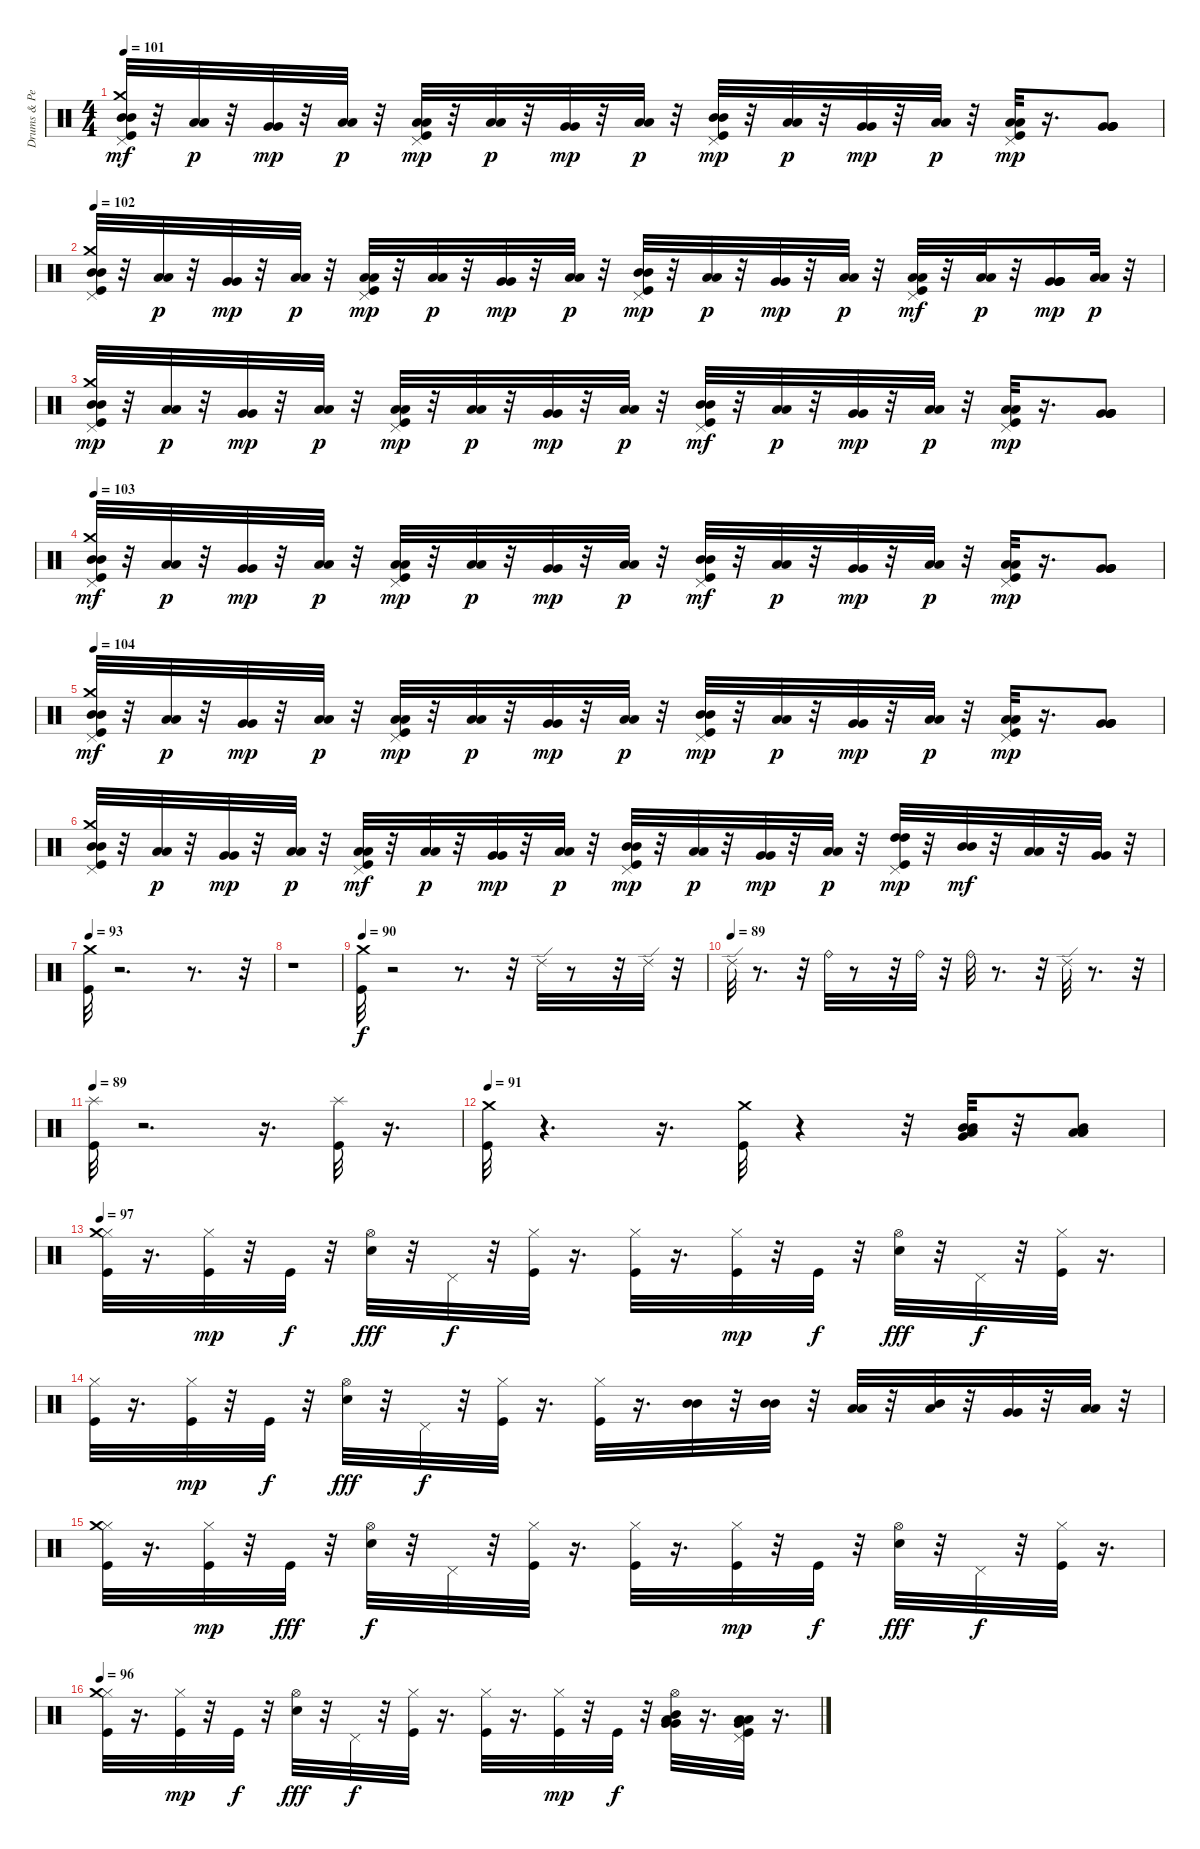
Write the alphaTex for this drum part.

\track ("Drums & Percussion" "Drums & Pe") {instrument percussion}
\staff {score}
\articulation defaults
\ts (4 4)
\tempo 101
\clef neutral
\ks c
("Mid Tom (hit)" "Crash medium (hit)" "Mid Tom (hit)" "Pedal Hi-Hat (hit)" "Kick (hit)").32{dy mf} r.32 ("Low Floor Tom (hit)" "Low Floor Tom (hit)").32{dy p} r.32 ("Very Low Tom (hit)" "Very Low Tom (hit)").32{dy mp} r.32 ("Low Floor Tom (hit)" "Low Floor Tom (hit)").32{dy p} r.32 ("Low Tom (hit)" "Pedal Hi-Hat (hit)" "Kick (hit)" "Low Tom (hit)").32{dy mp} r.32 ("Low Floor Tom (hit)" "Low Floor Tom (hit)").32{dy p} r.32 ("Very Low Tom (hit)" "Very Low Tom (hit)").32{dy mp} r.32 ("Low Floor Tom (hit)" "Low Floor Tom (hit)").32{dy p} r.32 ("Mid Tom (hit)" "Mid Tom (hit)" "Kick (hit)" "Pedal Hi-Hat (hit)").32{dy mp} r.32 ("Low Floor Tom (hit)" "Low Floor Tom (hit)").32{dy p} r.32 ("Very Low Tom (hit)" "Very Low Tom (hit)").32{dy mp} r.32 ("Low Floor Tom (hit)" "Low Floor Tom (hit)").32{dy p} r.32 ("Low Tom (hit)" "Low Tom (hit)" "Kick (hit)" "Pedal Hi-Hat (hit)").32{dy mp} r.16{d} ("Very Low Tom (hit)" "Very Low Tom (hit)" "Very Low Tom (hit)" "Very Low Tom (hit)").8 |
\tempo 102
("Mid Tom (hit)" "Crash medium (hit)" "Mid Tom (hit)" "Kick (hit)" "Pedal Hi-Hat (hit)").32 r.32 ("Low Floor Tom (hit)" "Low Floor Tom (hit)").32{dy p} r.32 ("Very Low Tom (hit)" "Very Low Tom (hit)").32{dy mp} r.32 ("Low Floor Tom (hit)" "Low Floor Tom (hit)").32{dy p} r.32 ("Low Tom (hit)" "Low Tom (hit)" "Kick (hit)" "Pedal Hi-Hat (hit)").32{dy mp} r.32 ("Low Floor Tom (hit)" "Low Floor Tom (hit)").32{dy p} r.32 ("Very Low Tom (hit)" "Very Low Tom (hit)").32{dy mp} r.32 ("Low Floor Tom (hit)" "Low Floor Tom (hit)").32{dy p} r.32 ("Mid Tom (hit)" "Mid Tom (hit)" "Kick (hit)" "Pedal Hi-Hat (hit)").32{dy mp} r.32 ("Low Floor Tom (hit)" "Low Floor Tom (hit)").32{dy p} r.32 ("Very Low Tom (hit)" "Very Low Tom (hit)").32{dy mp} r.32 ("Low Floor Tom (hit)" "Low Floor Tom (hit)").32{dy p} r.32 ("Low Tom (hit)" "Pedal Hi-Hat (hit)" "Low Tom (hit)" "Kick (hit)").32{dy mf} r.32 ("Low Floor Tom (hit)" "Low Floor Tom (hit)").32{dy p} r.32 ("Very Low Tom (hit)" "Very Low Tom (hit)" "Very Low Tom (hit)" "Very Low Tom (hit)").16{dy mp} ("Low Floor Tom (hit)" "Low Floor Tom (hit)").32{dy p} r.32 |
("Mid Tom (hit)" "Crash medium (hit)" "Kick (hit)" "Pedal Hi-Hat (hit)" "Mid Tom (hit)").32{dy mp} r.32 ("Low Floor Tom (hit)" "Low Floor Tom (hit)").32{dy p} r.32 ("Very Low Tom (hit)" "Very Low Tom (hit)").32{dy mp} r.32 ("Low Floor Tom (hit)" "Low Floor Tom (hit)").32{dy p} r.32 ("Low Tom (hit)" "Kick (hit)" "Low Tom (hit)" "Pedal Hi-Hat (hit)").32{dy mp} r.32 ("Low Floor Tom (hit)" "Low Floor Tom (hit)").32{dy p} r.32 ("Very Low Tom (hit)" "Very Low Tom (hit)").32{dy mp} r.32 ("Low Floor Tom (hit)" "Low Floor Tom (hit)").32{dy p} r.32 ("Mid Tom (hit)" "Mid Tom (hit)" "Pedal Hi-Hat (hit)" "Kick (hit)").32{dy mf} r.32 ("Low Floor Tom (hit)" "Low Floor Tom (hit)").32{dy p} r.32 ("Very Low Tom (hit)" "Very Low Tom (hit)").32{dy mp} r.32 ("Low Floor Tom (hit)" "Low Floor Tom (hit)").32{dy p} r.32 ("Low Tom (hit)" "Low Tom (hit)" "Kick (hit)" "Pedal Hi-Hat (hit)").32{dy mp} r.16{d} ("Very Low Tom (hit)" "Very Low Tom (hit)" "Very Low Tom (hit)" "Very Low Tom (hit)").8 |
\tempo 103
("Mid Tom (hit)" "Mid Tom (hit)" "Pedal Hi-Hat (hit)" "Kick (hit)" "Crash medium (hit)").32{dy mf} r.32 ("Low Floor Tom (hit)" "Low Floor Tom (hit)").32{dy p} r.32 ("Very Low Tom (hit)" "Very Low Tom (hit)").32{dy mp} r.32 ("Low Floor Tom (hit)" "Low Floor Tom (hit)").32{dy p} r.32 ("Low Tom (hit)" "Kick (hit)" "Low Tom (hit)" "Pedal Hi-Hat (hit)").32{dy mp} r.32 ("Low Floor Tom (hit)" "Low Floor Tom (hit)").32{dy p} r.32 ("Very Low Tom (hit)" "Very Low Tom (hit)").32{dy mp} r.32 ("Low Floor Tom (hit)" "Low Floor Tom (hit)").32{dy p} r.32 ("Mid Tom (hit)" "Mid Tom (hit)" "Pedal Hi-Hat (hit)" "Kick (hit)").32{dy mf} r.32 ("Low Floor Tom (hit)" "Low Floor Tom (hit)").32{dy p} r.32 ("Very Low Tom (hit)" "Very Low Tom (hit)").32{dy mp} r.32 ("Low Floor Tom (hit)" "Low Floor Tom (hit)").32{dy p} r.32 ("Low Tom (hit)" "Low Tom (hit)" "Kick (hit)" "Pedal Hi-Hat (hit)").32{dy mp} r.16{d} ("Very Low Tom (hit)" "Very Low Tom (hit)" "Very Low Tom (hit)" "Very Low Tom (hit)").8 |
\tempo 104
("Mid Tom (hit)" "Crash medium (hit)" "Mid Tom (hit)" "Pedal Hi-Hat (hit)" "Kick (hit)").32{dy mf} r.32 ("Low Floor Tom (hit)" "Low Floor Tom (hit)").32{dy p} r.32 ("Very Low Tom (hit)" "Very Low Tom (hit)").32{dy mp} r.32 ("Low Floor Tom (hit)" "Low Floor Tom (hit)").32{dy p} r.32 ("Low Tom (hit)" "Pedal Hi-Hat (hit)" "Kick (hit)" "Low Tom (hit)").32{dy mp} r.32 ("Low Floor Tom (hit)" "Low Floor Tom (hit)").32{dy p} r.32 ("Very Low Tom (hit)" "Very Low Tom (hit)").32{dy mp} r.32 ("Low Floor Tom (hit)" "Low Floor Tom (hit)").32{dy p} r.32 ("Mid Tom (hit)" "Mid Tom (hit)" "Kick (hit)" "Pedal Hi-Hat (hit)").32{dy mp} r.32 ("Low Floor Tom (hit)" "Low Floor Tom (hit)").32{dy p} r.32 ("Very Low Tom (hit)" "Very Low Tom (hit)").32{dy mp} r.32 ("Low Floor Tom (hit)" "Low Floor Tom (hit)").32{dy p} r.32 ("Low Tom (hit)" "Kick (hit)" "Low Tom (hit)" "Pedal Hi-Hat (hit)").32{dy mp} r.16{d} ("Very Low Tom (hit)" "Very Low Tom (hit)" "Very Low Tom (hit)" "Very Low Tom (hit)").8 |
("Mid Tom (hit)" "Kick (hit)" "Crash medium (hit)" "Mid Tom (hit)" "Pedal Hi-Hat (hit)").32 r.32 ("Low Floor Tom (hit)" "Low Floor Tom (hit)").32{dy p} r.32 ("Very Low Tom (hit)" "Very Low Tom (hit)").32{dy mp} r.32 ("Low Floor Tom (hit)" "Low Floor Tom (hit)").32{dy p} r.32 ("Low Tom (hit)" "Low Tom (hit)" "Pedal Hi-Hat (hit)" "Kick (hit)").32{dy mf} r.32 ("Low Floor Tom (hit)" "Low Floor Tom (hit)").32{dy p} r.32 ("Very Low Tom (hit)" "Very Low Tom (hit)").32{dy mp} r.32 ("Low Floor Tom (hit)" "Low Floor Tom (hit)").32{dy p} r.32 ("Mid Tom (hit)" "Pedal Hi-Hat (hit)" "Kick (hit)" "Mid Tom (hit)").32{dy mp} r.32 ("Low Floor Tom (hit)" "Low Floor Tom (hit)").32{dy p} r.32 ("Very Low Tom (hit)" "Very Low Tom (hit)").32{dy mp} r.32 ("Low Floor Tom (hit)" "Low Floor Tom (hit)").32{dy p} r.32 ("High Tom (hit)" "High Tom (hit)" "Kick (hit)" "Pedal Hi-Hat (hit)").32{dy mp} r.32 ("Mid Tom (hit)" "Mid Tom (hit)").32{dy mf} r.32 ("Low Tom (hit)" "Low Tom (hit)").32 r.32 ("Very Low Tom (hit)" "Very Low Tom (hit)").32 r.32 |
\tempo 93
("Crash medium (hit)" "Kick (hit)").32 r.2{d} r.8{d} r.32 |
r.1 |
\tempo 90
("Crash medium (hit)" "Kick (hit)").32{dy f} r.2 r.8{d} r.32 "Ride (edge) 2".32 r.8 r.32 "Ride (edge) 2".32 r.32 |
\tempo (89)
"Ride (edge) 2".32 r.8{d} r.32 "Ride (bell)".32 r.8 r.32 "Ride (bell)".32 r.32 "Ride (bell)".32 r.8{d} r.32 "Ride (edge) 2".32 r.8{d} r.32 |
\tempo 89
("Splash (hit)" "Kick (hit)").32 r.2{d} r.16{d} ("Splash (hit)" "Kick (hit)").32 r.16{d} |
\tempo 91
("Kick (hit)" "Crash medium (hit)").32 r.4{d} r.16{d} ("Crash medium (hit)" "Kick (hit)").32 r.4 r.32 ("Mid Tom (hit)" "Very Low Tom (hit)" "Mid Tom (hit)" "Low Tom (hit)").32 r.32 ("Low Tom (hit)" "Low Floor Tom (hit)" "Mid Tom (hit)" "Low Tom (hit)").8 |
\tempo 97
("Hi-Hat (closed)" "Kick (hit)" "Crash medium (hit)").32 r.16{d} ("Kick (hit)" "Hi-Hat (closed)").32{dy mp} r.32 "Kick (hit)".32{dy f} r.32 ("Hi-Hat (open)" "Snare (hit) 2").32{dy fff} r.32 "Pedal Hi-Hat (hit)".32{dy f} r.32 ("Hi-Hat (closed)" "Kick (hit)").32 r.16{d} ("Hi-Hat (closed)" "Kick (hit)").32 r.16{d} ("Hi-Hat (closed)" "Kick (hit)").32{dy mp} r.32 "Kick (hit)".32{dy f} r.32 ("Hi-Hat (open)" "Snare (hit) 2").32{dy fff} r.32 "Pedal Hi-Hat (hit)".32{dy f} r.32 ("Kick (hit)" "Hi-Hat (closed)").32 r.16{d} |
("Kick (hit)" "Hi-Hat (closed)").32 r.16{d} ("Hi-Hat (closed)" "Kick (hit)").32{dy mp} r.32 "Kick (hit)".32{dy f} r.32 ("Snare (hit) 2" "Hi-Hat (open)").32{dy fff} r.32 "Pedal Hi-Hat (hit)".32{dy f} r.32 ("Hi-Hat (closed)" "Kick (hit)").32 r.16{d} ("Kick (hit)" "Hi-Hat (closed)").32 r.16{d} ("Mid Tom (hit)" "Mid Tom (hit)").32 r.32 ("Mid Tom (hit)" "Mid Tom (hit)").32 r.32 ("Low Tom (hit)" "Low Tom (hit)").32 r.32 ("Low Tom (hit)" "Mid Tom (hit)").32 r.32 ("Very Low Tom (hit)" "Very Low Tom (hit)").32 r.32 ("Low Floor Tom (hit)" "Low Floor Tom (hit)").32 r.32 |
("Kick (hit)" "Hi-Hat (closed)" "Crash medium (hit)").32 r.16{d} ("Kick (hit)" "Hi-Hat (closed)").32{dy mp} r.32 "Kick (hit)".32{dy fff} r.32 ("Snare (hit) 2" "Hi-Hat (open)").32{dy f} r.32 "Pedal Hi-Hat (hit)".32 r.32 ("Kick (hit)" "Hi-Hat (closed)").32 r.16{d} ("Kick (hit)" "Hi-Hat (closed)").32 r.16{d} ("Kick (hit)" "Hi-Hat (closed)").32{dy mp} r.32 "Kick (hit)".32{dy f} r.32 ("Snare (hit) 2" "Hi-Hat (open)").32{dy fff} r.32 "Pedal Hi-Hat (hit)".32{dy f} r.32 ("Kick (hit)" "Hi-Hat (closed)").32 r.16{d} |
\tempo 96
("Kick (hit)" "Hi-Hat (closed)" "Crash medium (hit)").32 r.16{d} ("Kick (hit)" "Hi-Hat (closed)").32{dy mp} r.32 "Kick (hit)".32{dy f} r.32 ("Snare (hit) 2" "Hi-Hat (open)").32{dy fff} r.32 "Pedal Hi-Hat (hit)".32{dy f} r.32 ("Kick (hit)" "Hi-Hat (closed)").32 r.16{d} ("Kick (hit)" "Hi-Hat (closed)").32 r.16{d} ("Kick (hit)" "Hi-Hat (closed)").32{dy mp} r.32 "Kick (hit)".32{dy f} r.32 ("Very Low Tom (hit)" "Low Tom (hit)" "Mid Tom (hit)" "Hi-Hat (open)" "Very Low Tom (hit)").32 r.16{d} ("Low Floor Tom (hit)" "Very Low Tom (hit)" "Kick (hit)" "Low Floor Tom (hit)" "Pedal Hi-Hat (hit)").32 r.16{d}
